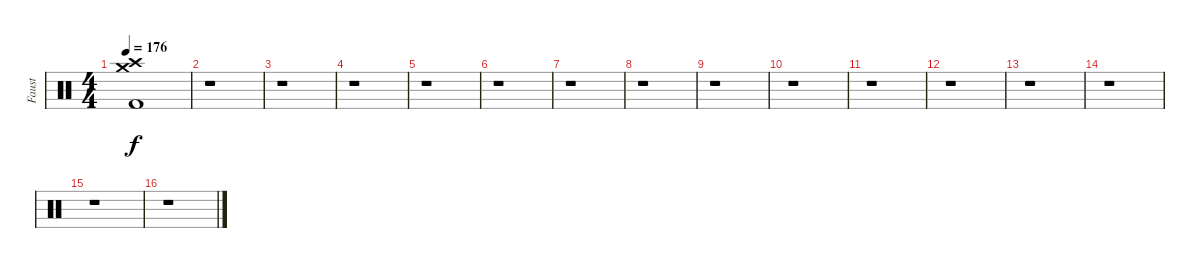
\track ("Faust" "Faust") {instrument percussion}
\staff {score}
\articulation defaults
\ts (4 4)
\tempo 176
\clef neutral
\ks c
("Crash medium (hit)" "Crash high (hit)" "Kick (hit) 2").1{dy f} |
r.1 |
r.1 |
r.1 |
r.1 |
r.1 |
r.1 |
r.1 |
r.1 |
r.1 |
r.1 |
r.1 |
r.1 |
r.1 |
r.1 |
r.1
